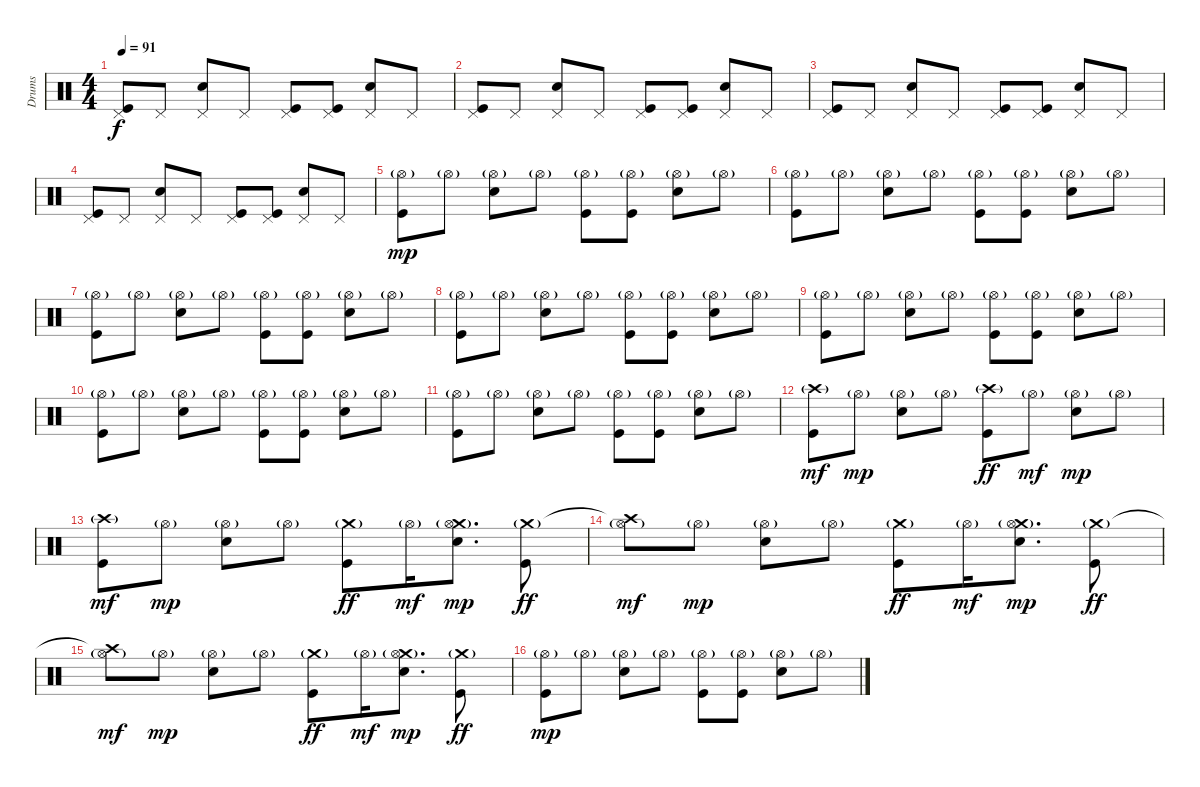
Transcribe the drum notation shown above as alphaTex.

\track ("Drums" "Drums") {instrument percussion}
\staff {score}
\articulation defaults
\ts (4 4)
\tempo 91
\clef neutral
\ks c
("Kick (hit)" "Pedal Hi-Hat (hit)").8{dy f} "Pedal Hi-Hat (hit)".8 ("Snare (hit) 2" "Pedal Hi-Hat (hit)").8 "Pedal Hi-Hat (hit)".8 ("Kick (hit)" "Pedal Hi-Hat (hit)").8 ("Kick (hit)" "Pedal Hi-Hat (hit)").8 ("Snare (hit) 2" "Pedal Hi-Hat (hit)").8 "Pedal Hi-Hat (hit)".8 |
("Kick (hit)" "Pedal Hi-Hat (hit)").8 "Pedal Hi-Hat (hit)".8 ("Snare (hit) 2" "Pedal Hi-Hat (hit)").8 "Pedal Hi-Hat (hit)".8 ("Kick (hit)" "Pedal Hi-Hat (hit)").8 ("Kick (hit)" "Pedal Hi-Hat (hit)").8 ("Snare (hit) 2" "Pedal Hi-Hat (hit)").8 "Pedal Hi-Hat (hit)".8 |
("Kick (hit)" "Pedal Hi-Hat (hit)").8 "Pedal Hi-Hat (hit)".8 ("Snare (hit) 2" "Pedal Hi-Hat (hit)").8 "Pedal Hi-Hat (hit)".8 ("Kick (hit)" "Pedal Hi-Hat (hit)").8 ("Kick (hit)" "Pedal Hi-Hat (hit)").8 ("Snare (hit) 2" "Pedal Hi-Hat (hit)").8 "Pedal Hi-Hat (hit)".8 |
("Kick (hit)" "Pedal Hi-Hat (hit)").8 "Pedal Hi-Hat (hit)".8 ("Snare (hit) 2" "Pedal Hi-Hat (hit)").8 "Pedal Hi-Hat (hit)".8 ("Kick (hit)" "Pedal Hi-Hat (hit)").8 ("Kick (hit)" "Pedal Hi-Hat (hit)").8 ("Snare (hit) 2" "Pedal Hi-Hat (hit)").8 "Pedal Hi-Hat (hit)".8 |
("Kick (hit)" "Hi-Hat (open)"{g}).8{dy mp} "Hi-Hat (open)"{g}.8 ("Snare (hit) 2" "Hi-Hat (open)"{g}).8 "Hi-Hat (open)"{g}.8 ("Kick (hit)" "Hi-Hat (open)"{g}).8 ("Kick (hit)" "Hi-Hat (open)"{g}).8 ("Snare (hit) 2" "Hi-Hat (open)"{g}).8 "Hi-Hat (open)"{g}.8 |
("Kick (hit)" "Hi-Hat (open)"{g}).8 "Hi-Hat (open)"{g}.8 ("Snare (hit) 2" "Hi-Hat (open)"{g}).8 "Hi-Hat (open)"{g}.8 ("Kick (hit)" "Hi-Hat (open)"{g}).8 ("Kick (hit)" "Hi-Hat (open)"{g}).8 ("Snare (hit) 2" "Hi-Hat (open)"{g}).8 "Hi-Hat (open)"{g}.8 |
("Kick (hit)" "Hi-Hat (open)"{g}).8 "Hi-Hat (open)"{g}.8 ("Snare (hit) 2" "Hi-Hat (open)"{g}).8 "Hi-Hat (open)"{g}.8 ("Kick (hit)" "Hi-Hat (open)"{g}).8 ("Kick (hit)" "Hi-Hat (open)"{g}).8 ("Snare (hit) 2" "Hi-Hat (open)"{g}).8 "Hi-Hat (open)"{g}.8 |
("Kick (hit)" "Hi-Hat (open)"{g}).8 "Hi-Hat (open)"{g}.8 ("Snare (hit) 2" "Hi-Hat (open)"{g}).8 "Hi-Hat (open)"{g}.8 ("Kick (hit)" "Hi-Hat (open)"{g}).8 ("Kick (hit)" "Hi-Hat (open)"{g}).8 ("Snare (hit) 2" "Hi-Hat (open)"{g}).8 "Hi-Hat (open)"{g}.8 |
("Kick (hit)" "Hi-Hat (open)"{g}).8 "Hi-Hat (open)"{g}.8 ("Snare (hit) 2" "Hi-Hat (open)"{g}).8 "Hi-Hat (open)"{g}.8 ("Kick (hit)" "Hi-Hat (open)"{g}).8 ("Kick (hit)" "Hi-Hat (open)"{g}).8 ("Snare (hit) 2" "Hi-Hat (open)"{g}).8 "Hi-Hat (open)"{g}.8 |
("Kick (hit)" "Hi-Hat (open)"{g}).8 "Hi-Hat (open)"{g}.8 ("Snare (hit) 2" "Hi-Hat (open)"{g}).8 "Hi-Hat (open)"{g}.8 ("Kick (hit)" "Hi-Hat (open)"{g}).8 ("Kick (hit)" "Hi-Hat (open)"{g}).8 ("Snare (hit) 2" "Hi-Hat (open)"{g}).8 "Hi-Hat (open)"{g}.8 |
("Kick (hit)" "Hi-Hat (open)"{g}).8 "Hi-Hat (open)"{g}.8 ("Snare (hit) 2" "Hi-Hat (open)"{g}).8 "Hi-Hat (open)"{g}.8 ("Kick (hit)" "Hi-Hat (open)"{g}).8 ("Kick (hit)" "Hi-Hat (open)"{g}).8 ("Snare (hit) 2" "Hi-Hat (open)"{g}).8 "Hi-Hat (open)"{g}.8 |
("Crash high (hit)"{g} "Kick (hit)").8{dy mf} "Hi-Hat (open)"{g}.8{dy mp} ("Snare (hit) 2" "Hi-Hat (open)"{g}).8 "Hi-Hat (open)"{g}.8 ("Crash high (hit)"{g} "Kick (hit)").8{dy ff} "Hi-Hat (open)"{g}.8{dy mf} ("Snare (hit) 2" "Hi-Hat (open)"{g}).8{dy mp} "Hi-Hat (open)"{g}.8 |
("Crash high (hit)"{g} "Kick (hit)").8{dy mf} "Hi-Hat (open)"{g}.8{dy mp} ("Snare (hit) 2" "Hi-Hat (open)"{g}).8 "Hi-Hat (open)"{g}.8 ("Crash medium (hit)"{g} "Kick (hit)").8{dy ff} "Hi-Hat (open)"{g}.16{dy mf} ("Crash medium (hit)"{g} "Snare (hit) 2" "Hi-Hat (open)"{g}).8{d dy mp} ("Crash medium (hit)"{g} "Kick (hit)").8{dy ff} |
("Crash high (hit)"{t} "Hi-Hat (open)"{g}).8{dy mf} "Hi-Hat (open)"{g}.8{dy mp} ("Snare (hit) 2" "Hi-Hat (open)"{g}).8 "Hi-Hat (open)"{g}.8 ("Crash medium (hit)"{g} "Kick (hit)").8{dy ff} "Hi-Hat (open)"{g}.16{dy mf} ("Crash medium (hit)"{g} "Snare (hit) 2" "Hi-Hat (open)"{g}).8{d dy mp} ("Crash medium (hit)"{g} "Kick (hit)").8{dy ff} |
("Crash high (hit)"{t} "Hi-Hat (open)"{g}).8{dy mf} "Hi-Hat (open)"{g}.8{dy mp} ("Snare (hit) 2" "Hi-Hat (open)"{g}).8 "Hi-Hat (open)"{g}.8 ("Crash medium (hit)"{g} "Kick (hit)").8{dy ff} "Hi-Hat (open)"{g}.16{dy mf} ("Crash medium (hit)"{g} "Snare (hit) 2" "Hi-Hat (open)"{g}).8{d dy mp} ("Crash medium (hit)"{g} "Kick (hit)").8{dy ff} |
("Kick (hit)" "Hi-Hat (open)"{g}).8{dy mp} "Hi-Hat (open)"{g}.8 ("Snare (hit) 2" "Hi-Hat (open)"{g}).8 "Hi-Hat (open)"{g}.8 ("Kick (hit)" "Hi-Hat (open)"{g}).8 ("Kick (hit)" "Hi-Hat (open)"{g}).8 ("Snare (hit) 2" "Hi-Hat (open)"{g}).8 "Hi-Hat (open)"{g}.8
